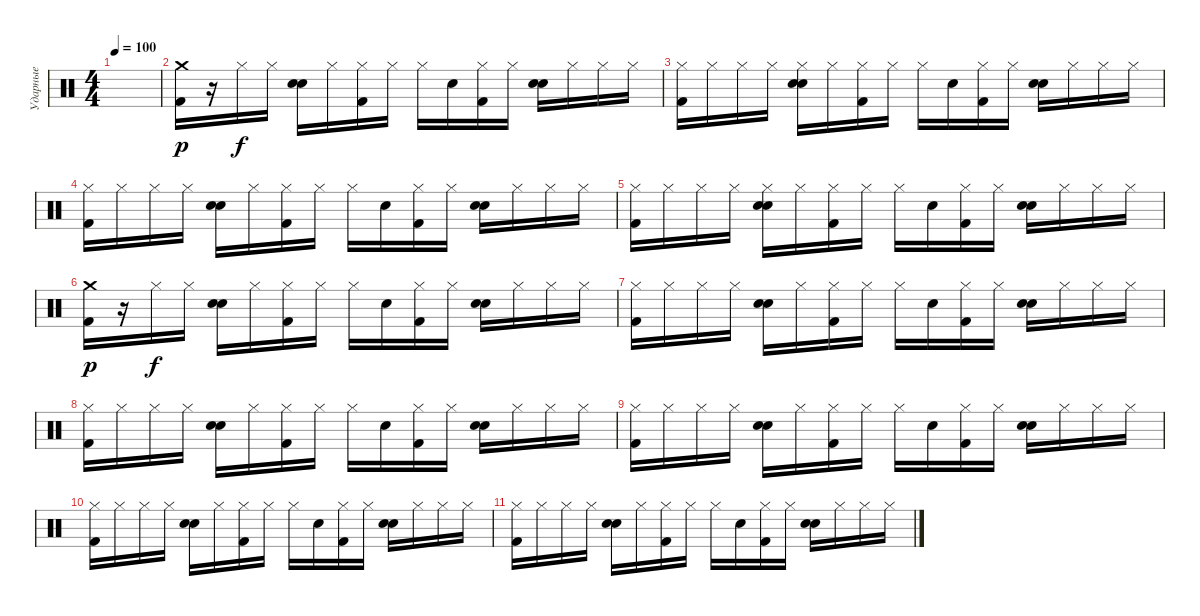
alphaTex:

\track ("Ударные" "Ударные") {instrument percussion}
\staff {score}
\articulation defaults
\ts (4 4)
\tempo 100
\clef neutral
\ks c
|
("Crash medium (hit)" "Kick (hit) 2").16{dy p} r.16 "Hi-Hat (closed)".16{dy f} "Hi-Hat (closed)".16 ("Electric Snare (hit)" "Electric Snare (hit)").16 "Hi-Hat (closed)".16 ("Hi-Hat (closed)" "Kick (hit) 2").16 "Hi-Hat (closed)".16 "Hi-Hat (closed)".16 "Electric Snare (hit)".16 ("Hi-Hat (closed)" "Kick (hit) 2").16 "Hi-Hat (closed)".16 ("Electric Snare (hit)" "Electric Snare (hit)").16 "Hi-Hat (closed)".16 "Hi-Hat (closed)".16 "Hi-Hat (closed)".16 |
("Hi-Hat (closed)" "Kick (hit) 2").16 "Hi-Hat (closed)".16 "Hi-Hat (closed)".16 "Hi-Hat (closed)".16 ("Hi-Hat (closed)" "Electric Snare (hit)" "Electric Snare (hit)").16 "Hi-Hat (closed)".16 ("Hi-Hat (closed)" "Kick (hit) 2").16 "Hi-Hat (closed)".16 "Hi-Hat (closed)".16 "Electric Snare (hit)".16 ("Hi-Hat (closed)" "Kick (hit) 2").16 "Hi-Hat (closed)".16 ("Electric Snare (hit)" "Electric Snare (hit)").16 "Hi-Hat (closed)".16 "Hi-Hat (closed)".16 "Hi-Hat (closed)".16 |
("Hi-Hat (closed)" "Kick (hit) 2").16 "Hi-Hat (closed)".16 "Hi-Hat (closed)".16 "Hi-Hat (closed)".16 ("Electric Snare (hit)" "Electric Snare (hit)").16 "Hi-Hat (closed)".16 ("Hi-Hat (closed)" "Kick (hit) 2").16 "Hi-Hat (closed)".16 "Hi-Hat (closed)".16 "Electric Snare (hit)".16 ("Hi-Hat (closed)" "Kick (hit) 2").16 "Hi-Hat (closed)".16 ("Electric Snare (hit)" "Electric Snare (hit)").16 "Hi-Hat (closed)".16 "Hi-Hat (closed)".16 "Hi-Hat (closed)".16 |
("Hi-Hat (closed)" "Kick (hit) 2").16 "Hi-Hat (closed)".16 "Hi-Hat (closed)".16 "Hi-Hat (closed)".16 ("Hi-Hat (closed)" "Electric Snare (hit)" "Electric Snare (hit)").16 "Hi-Hat (closed)".16 ("Hi-Hat (closed)" "Kick (hit) 2").16 "Hi-Hat (closed)".16 "Hi-Hat (closed)".16 "Electric Snare (hit)".16 ("Hi-Hat (closed)" "Kick (hit) 2").16 "Hi-Hat (closed)".16 ("Electric Snare (hit)" "Electric Snare (hit)").16 "Hi-Hat (closed)".16 "Hi-Hat (closed)".16 "Hi-Hat (closed)".16 |
("Crash medium (hit)" "Kick (hit) 2").16{dy p} r.16 "Hi-Hat (closed)".16{dy f} "Hi-Hat (closed)".16 ("Electric Snare (hit)" "Electric Snare (hit)").16 "Hi-Hat (closed)".16 ("Hi-Hat (closed)" "Kick (hit) 2").16 "Hi-Hat (closed)".16 "Hi-Hat (closed)".16 "Electric Snare (hit)".16 ("Hi-Hat (closed)" "Kick (hit) 2").16 "Hi-Hat (closed)".16 ("Electric Snare (hit)" "Electric Snare (hit)").16 "Hi-Hat (closed)".16 "Hi-Hat (closed)".16 "Hi-Hat (closed)".16 |
("Hi-Hat (closed)" "Kick (hit) 2").16 "Hi-Hat (closed)".16 "Hi-Hat (closed)".16 "Hi-Hat (closed)".16 ("Electric Snare (hit)" "Electric Snare (hit)").16 "Hi-Hat (closed)".16 ("Hi-Hat (closed)" "Kick (hit) 2").16 "Hi-Hat (closed)".16 "Hi-Hat (closed)".16 "Electric Snare (hit)".16 ("Hi-Hat (closed)" "Kick (hit) 2").16 "Hi-Hat (closed)".16 ("Electric Snare (hit)" "Electric Snare (hit)").16 "Hi-Hat (closed)".16 "Hi-Hat (closed)".16 "Hi-Hat (closed)".16 |
("Hi-Hat (closed)" "Kick (hit) 2").16 "Hi-Hat (closed)".16 "Hi-Hat (closed)".16 "Hi-Hat (closed)".16 ("Electric Snare (hit)" "Electric Snare (hit)").16 "Hi-Hat (closed)".16 ("Hi-Hat (closed)" "Kick (hit) 2").16 "Hi-Hat (closed)".16 "Hi-Hat (closed)".16 "Electric Snare (hit)".16 ("Hi-Hat (closed)" "Kick (hit) 2").16 "Hi-Hat (closed)".16 ("Electric Snare (hit)" "Electric Snare (hit)").16 "Hi-Hat (closed)".16 "Hi-Hat (closed)".16 "Hi-Hat (closed)".16 |
("Hi-Hat (closed)" "Kick (hit) 2").16 "Hi-Hat (closed)".16 "Hi-Hat (closed)".16 "Hi-Hat (closed)".16 ("Electric Snare (hit)" "Electric Snare (hit)").16 "Hi-Hat (closed)".16 ("Hi-Hat (closed)" "Kick (hit) 2").16 "Hi-Hat (closed)".16 "Hi-Hat (closed)".16 "Electric Snare (hit)".16 ("Hi-Hat (closed)" "Kick (hit) 2").16 "Hi-Hat (closed)".16 ("Electric Snare (hit)" "Electric Snare (hit)").16 "Hi-Hat (closed)".16 "Hi-Hat (closed)".16 "Hi-Hat (closed)".16 |
("Hi-Hat (closed)" "Kick (hit) 2").16 "Hi-Hat (closed)".16 "Hi-Hat (closed)".16 "Hi-Hat (closed)".16 ("Electric Snare (hit)" "Electric Snare (hit)").16 "Hi-Hat (closed)".16 ("Hi-Hat (closed)" "Kick (hit) 2").16 "Hi-Hat (closed)".16 "Hi-Hat (closed)".16 "Electric Snare (hit)".16 ("Hi-Hat (closed)" "Kick (hit) 2").16 "Hi-Hat (closed)".16 ("Electric Snare (hit)" "Electric Snare (hit)").16 "Hi-Hat (closed)".16 "Hi-Hat (closed)".16 "Hi-Hat (closed)".16 |
("Hi-Hat (closed)" "Kick (hit) 2").16 "Hi-Hat (closed)".16 "Hi-Hat (closed)".16 "Hi-Hat (closed)".16 ("Electric Snare (hit)" "Electric Snare (hit)").16 "Hi-Hat (closed)".16 ("Hi-Hat (closed)" "Kick (hit) 2").16 "Hi-Hat (closed)".16 "Hi-Hat (closed)".16 "Electric Snare (hit)".16 ("Hi-Hat (closed)" "Kick (hit) 2").16 "Hi-Hat (closed)".16 ("Electric Snare (hit)" "Electric Snare (hit)").16 "Hi-Hat (closed)".16 "Hi-Hat (closed)".16 "Hi-Hat (closed)".16
